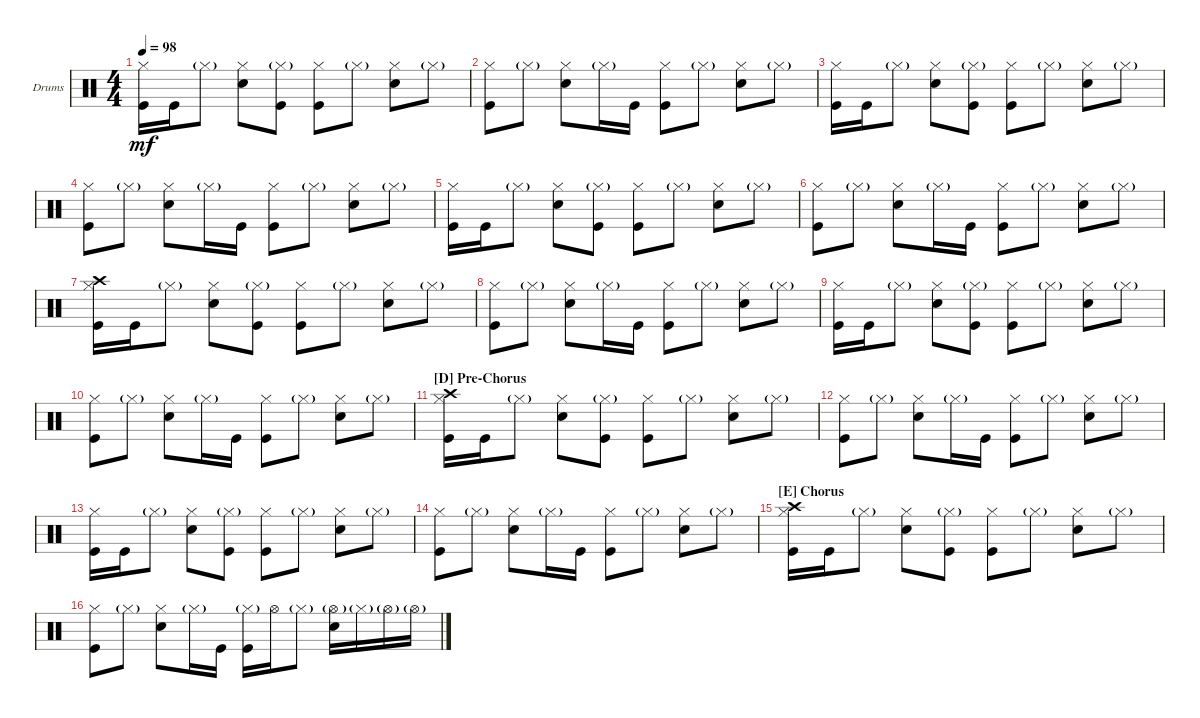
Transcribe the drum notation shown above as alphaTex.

\defaultSystemsLayout 4
\bracketExtendMode groupsimilarinstruments
\firstSystemTrackNameOrientation horizontal
\otherSystemsTrackNameOrientation horizontal
\track ("Drumkit" "Drums") {instrument percussion}
\staff {score}
\articulation defaults
\ts (4 4)
\tempo 98
\clef neutral
\ks c
("Kick (hit)" "Hi-Hat (closed)").16{dy mf} "Kick (hit)".16 "Hi-Hat (closed)"{g}.8 ("Snare (hit) 2" "Hi-Hat (closed)").8 ("Kick (hit)" "Hi-Hat (closed)"{g}).8 ("Kick (hit)" "Hi-Hat (closed)").8 "Hi-Hat (closed)"{g}.8 ("Snare (hit) 2" "Hi-Hat (closed)").8 "Hi-Hat (closed)"{g}.8 |
("Kick (hit)" "Hi-Hat (closed)").8 "Hi-Hat (closed)"{g}.8 ("Snare (hit) 2" "Hi-Hat (closed)").8 "Hi-Hat (closed)"{g}.16 "Kick (hit)".16 ("Kick (hit)" "Hi-Hat (closed)").8 "Hi-Hat (closed)"{g}.8 ("Snare (hit) 2" "Hi-Hat (closed)").8 "Hi-Hat (closed)"{g}.8 |
("Kick (hit)" "Hi-Hat (closed)").16 "Kick (hit)".16 "Hi-Hat (closed)"{g}.8 ("Snare (hit) 2" "Hi-Hat (closed)").8 ("Kick (hit)" "Hi-Hat (closed)"{g}).8 ("Kick (hit)" "Hi-Hat (closed)").8 "Hi-Hat (closed)"{g}.8 ("Snare (hit) 2" "Hi-Hat (closed)").8 "Hi-Hat (closed)"{g}.8 |
("Kick (hit)" "Hi-Hat (closed)").8 "Hi-Hat (closed)"{g}.8 ("Snare (hit) 2" "Hi-Hat (closed)").8 "Hi-Hat (closed)"{g}.16 "Kick (hit)".16 ("Kick (hit)" "Hi-Hat (closed)").8 "Hi-Hat (closed)"{g}.8 ("Snare (hit) 2" "Hi-Hat (closed)").8 "Hi-Hat (closed)"{g}.8 |
("Kick (hit)" "Hi-Hat (closed)").16 "Kick (hit)".16 "Hi-Hat (closed)"{g}.8 ("Snare (hit) 2" "Hi-Hat (closed)").8 ("Kick (hit)" "Hi-Hat (closed)"{g}).8 ("Kick (hit)" "Hi-Hat (closed)").8 "Hi-Hat (closed)"{g}.8 ("Snare (hit) 2" "Hi-Hat (closed)").8 "Hi-Hat (closed)"{g}.8 |
("Kick (hit)" "Hi-Hat (closed)").8 "Hi-Hat (closed)"{g}.8 ("Snare (hit) 2" "Hi-Hat (closed)").8 "Hi-Hat (closed)"{g}.16 "Kick (hit)".16 ("Kick (hit)" "Hi-Hat (closed)").8 "Hi-Hat (closed)"{g}.8 ("Snare (hit) 2" "Hi-Hat (closed)").8 "Hi-Hat (closed)"{g}.8 |
("Kick (hit)" "Hi-Hat (closed)" "Crash high (hit)").16 "Kick (hit)".16 "Hi-Hat (closed)"{g}.8 ("Snare (hit) 2" "Hi-Hat (closed)").8 ("Kick (hit)" "Hi-Hat (closed)"{g}).8 ("Kick (hit)" "Hi-Hat (closed)").8 "Hi-Hat (closed)"{g}.8 ("Snare (hit) 2" "Hi-Hat (closed)").8 "Hi-Hat (closed)"{g}.8 |
("Kick (hit)" "Hi-Hat (closed)").8 "Hi-Hat (closed)"{g}.8 ("Snare (hit) 2" "Hi-Hat (closed)").8 "Hi-Hat (closed)"{g}.16 "Kick (hit)".16 ("Kick (hit)" "Hi-Hat (closed)").8 "Hi-Hat (closed)"{g}.8 ("Snare (hit) 2" "Hi-Hat (closed)").8 "Hi-Hat (closed)"{g}.8 |
("Kick (hit)" "Hi-Hat (closed)").16 "Kick (hit)".16 "Hi-Hat (closed)"{g}.8 ("Snare (hit) 2" "Hi-Hat (closed)").8 ("Kick (hit)" "Hi-Hat (closed)"{g}).8 ("Kick (hit)" "Hi-Hat (closed)").8 "Hi-Hat (closed)"{g}.8 ("Snare (hit) 2" "Hi-Hat (closed)").8 "Hi-Hat (closed)"{g}.8 |
("Kick (hit)" "Hi-Hat (closed)").8 "Hi-Hat (closed)"{g}.8 ("Snare (hit) 2" "Hi-Hat (closed)").8 "Hi-Hat (closed)"{g}.16 "Kick (hit)".16 ("Kick (hit)" "Hi-Hat (closed)").8 "Hi-Hat (closed)"{g}.8 ("Snare (hit) 2" "Hi-Hat (closed)").8 "Hi-Hat (closed)"{g}.8 |
\section ("D" "Pre-Chorus")
("Kick (hit)" "Hi-Hat (closed)" "Crash high (hit)").16 "Kick (hit)".16 "Hi-Hat (closed)"{g}.8 ("Snare (hit) 2" "Hi-Hat (closed)").8 ("Kick (hit)" "Hi-Hat (closed)"{g}).8 ("Kick (hit)" "Hi-Hat (closed)").8 "Hi-Hat (closed)"{g}.8 ("Snare (hit) 2" "Hi-Hat (closed)").8 "Hi-Hat (closed)"{g}.8 |
("Kick (hit)" "Hi-Hat (closed)").8 "Hi-Hat (closed)"{g}.8 ("Snare (hit) 2" "Hi-Hat (closed)").8 "Hi-Hat (closed)"{g}.16 "Kick (hit)".16 ("Kick (hit)" "Hi-Hat (closed)").8 "Hi-Hat (closed)"{g}.8 ("Snare (hit) 2" "Hi-Hat (closed)").8 "Hi-Hat (closed)"{g}.8 |
("Kick (hit)" "Hi-Hat (closed)").16 "Kick (hit)".16 "Hi-Hat (closed)"{g}.8 ("Snare (hit) 2" "Hi-Hat (closed)").8 ("Kick (hit)" "Hi-Hat (closed)"{g}).8 ("Kick (hit)" "Hi-Hat (closed)").8 "Hi-Hat (closed)"{g}.8 ("Snare (hit) 2" "Hi-Hat (closed)").8 "Hi-Hat (closed)"{g}.8 |
("Kick (hit)" "Hi-Hat (closed)").8 "Hi-Hat (closed)"{g}.8 ("Snare (hit) 2" "Hi-Hat (closed)").8 "Hi-Hat (closed)"{g}.16 "Kick (hit)".16 ("Kick (hit)" "Hi-Hat (closed)").8 "Hi-Hat (closed)"{g}.8 ("Snare (hit) 2" "Hi-Hat (closed)").8 "Hi-Hat (closed)"{g}.8 |
\section ("E" "Chorus")
("Kick (hit)" "Hi-Hat (closed)" "Crash high (hit)").16 "Kick (hit)".16 "Hi-Hat (closed)"{g}.8 ("Snare (hit) 2" "Hi-Hat (closed)").8 ("Kick (hit)" "Hi-Hat (closed)"{g}).8 ("Kick (hit)" "Hi-Hat (closed)").8 "Hi-Hat (closed)"{g}.8 ("Snare (hit) 2" "Hi-Hat (closed)").8 "Hi-Hat (closed)"{g}.8 |
("Kick (hit)" "Hi-Hat (closed)").8 "Hi-Hat (closed)"{g}.8 ("Snare (hit) 2" "Hi-Hat (closed)").8 "Hi-Hat (closed)"{g}.16 "Kick (hit)".16 ("Kick (hit)" "Hi-Hat (closed)"{g}).16 "Hi-Hat (open)".16 "Hi-Hat (closed)"{g}.8 ("Hi-Hat (open)"{g} "Snare (hit) 2").16 "Hi-Hat (closed)"{g}.16 "Hi-Hat (open)"{g}.16 "Hi-Hat (open)"{g}.16
